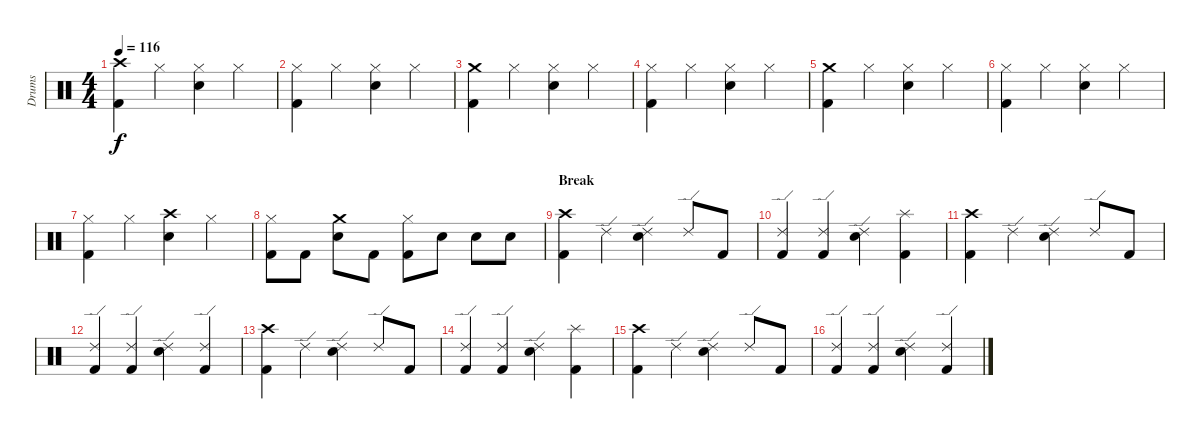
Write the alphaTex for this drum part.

\track ("Drums" "Drums") {instrument percussion}
\staff {score}
\articulation defaults
\ts (4 4)
\tempo 116
\clef neutral
\ks c
("Crash high (hit)" "Kick (hit) 2").4{dy f} "Hi-Hat (closed)".4 ("Hi-Hat (closed)" "Snare (hit) 2").4 "Hi-Hat (closed)".4 |
("Hi-Hat (closed)" "Kick (hit) 2").4 "Hi-Hat (closed)".4 ("Hi-Hat (closed)" "Snare (hit) 2").4 "Hi-Hat (closed)".4 |
("Crash medium (hit)" "Kick (hit) 2").4 "Hi-Hat (closed)".4 ("Hi-Hat (closed)" "Snare (hit) 2").4 "Hi-Hat (closed)".4 |
("Hi-Hat (closed)" "Kick (hit) 2").4 "Hi-Hat (closed)".4 ("Hi-Hat (closed)" "Snare (hit) 2").4 "Hi-Hat (closed)".4 |
("Crash medium (hit)" "Kick (hit) 2").4 "Hi-Hat (closed)".4 ("Hi-Hat (closed)" "Snare (hit) 2").4 "Hi-Hat (closed)".4 |
("Hi-Hat (closed)" "Kick (hit) 2").4 "Hi-Hat (closed)".4 ("Hi-Hat (closed)" "Snare (hit) 2").4 "Hi-Hat (closed)".4 |
("Hi-Hat (closed)" "Kick (hit) 2").4 "Hi-Hat (closed)".4 ("Crash high (hit)" "Snare (hit) 2").4 "Hi-Hat (closed)".4 |
("Hi-Hat (closed)" "Kick (hit) 2").8 "Kick (hit) 2".8 ("Crash medium (hit)" "Snare (hit) 2").8 "Kick (hit) 2".8 ("Hi-Hat (closed)" "Kick (hit) 2").8 "Snare (hit) 2".8 "Snare (hit) 2".8 "Snare (hit) 2".8 |
\section ("" "Break")
("Crash high (hit)" "Kick (hit) 2").4 "Ride (edge) 2".4 ("Ride (edge) 2" "Snare (hit) 2").4 "Ride (edge) 2".8 "Kick (hit) 2".8 |
("Ride (edge) 2" "Kick (hit) 2").4 ("Ride (edge) 2" "Kick (hit) 2").4 ("Ride (edge) 2" "Snare (hit) 2").4 ("Splash (hit)" "Kick (hit) 2").4 |
("Crash high (hit)" "Kick (hit) 2").4 "Ride (edge) 2".4 ("Ride (edge) 2" "Snare (hit) 2").4 "Ride (edge) 2".8 "Kick (hit) 2".8 |
("Ride (edge) 2" "Kick (hit) 2").4 ("Ride (edge) 2" "Kick (hit) 2").4 ("Ride (edge) 2" "Snare (hit) 2").4 ("Ride (edge) 2" "Kick (hit) 2").4 |
("Crash high (hit)" "Kick (hit) 2").4 "Ride (edge) 2".4 ("Ride (edge) 2" "Snare (hit) 2").4 "Ride (edge) 2".8 "Kick (hit) 2".8 |
("Ride (edge) 2" "Kick (hit) 2").4 ("Ride (edge) 2" "Kick (hit) 2").4 ("Ride (edge) 2" "Snare (hit) 2").4 ("Splash (hit)" "Kick (hit) 2").4 |
("Crash high (hit)" "Kick (hit) 2").4 "Ride (edge) 2".4 ("Ride (edge) 2" "Snare (hit) 2").4 "Ride (edge) 2".8 "Kick (hit) 2".8 |
("Ride (edge) 2" "Kick (hit) 2").4 ("Ride (edge) 2" "Kick (hit) 2").4 ("Ride (edge) 2" "Snare (hit) 2").4 ("Ride (edge) 2" "Kick (hit) 2").4
